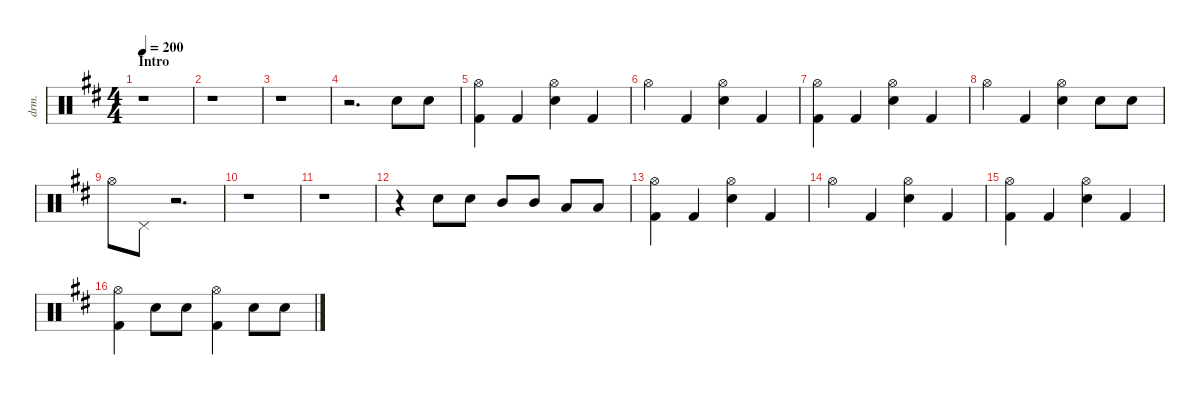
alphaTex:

\defaultSystemsLayout 4
\hideDynamics
\bracketExtendMode nobrackets
\otherSystemsTrackNameOrientation horizontal
\track ("Drums" "drm.") {instrument percussion}
\staff {score}
\articulation defaults
\ts (4 4)
\section ("" "Intro")
\tempo 200
\clef neutral
\ks d
r.1{dy ff beam Down} |
r.1{beam Down} |
r.1{beam Down} |
r.2{d beam Down} "Snare (hit) 2"{acc forcenatural}.8{beam Down} "Snare (hit) 2"{acc forcenatural}.8{beam Down} |
("Kick (hit) 2"{acc forcenatural} "Hi-Hat (open)"{acc #}).4{beam Down} "Kick (hit) 2"{acc forcenatural}.4{beam Up} ("Snare (hit) 2"{acc forcenatural} "Hi-Hat (open)"{acc #}).4{beam Down} "Kick (hit) 2"{acc forcenatural}.4{beam Up} |
"Hi-Hat (open)"{acc #}.4{beam Down} "Kick (hit) 2"{acc forcenatural}.4{beam Up} ("Snare (hit) 2"{acc forcenatural} "Hi-Hat (open)"{acc #}).4{beam Down} "Kick (hit) 2"{acc forcenatural}.4{beam Up} |
("Kick (hit) 2"{acc forcenatural} "Hi-Hat (open)"{acc #}).4{beam Down} "Kick (hit) 2"{acc forcenatural}.4{beam Up} ("Snare (hit) 2"{acc forcenatural} "Hi-Hat (open)"{acc #}).4{beam Down} "Kick (hit) 2"{acc forcenatural}.4{beam Up} |
"Hi-Hat (open)"{acc #}.4{beam Down} "Kick (hit) 2"{acc forcenatural}.4{beam Up} ("Snare (hit) 2"{acc forcenatural} "Hi-Hat (open)"{acc #}).4{beam Down} "Snare (hit) 2"{acc forcenatural}.8{beam Down} "Snare (hit) 2"{acc forcenatural}.8{beam Down} |
"Hi-Hat (open)"{acc #}.8{beam Down} "Pedal Hi-Hat (hit)"{acc #}.8{beam Down} r.2{d beam Down} |
r.1{beam Down} |
r.1{beam Down} |
r.4{beam Down} "Snare (hit) 2"{acc forcenatural}.8{beam Down} "Snare (hit) 2"{acc forcenatural}.8{beam Down} "Mid Tom (hit)"{acc forcenatural}.8{beam Up} "Mid Tom (hit)"{acc forcenatural}.8{beam Up} "Low Tom (hit)"{acc forcenatural}.8{beam Up} "Low Tom (hit)"{acc forcenatural}.8{beam Up} |
("Kick (hit) 2"{acc forcenatural} "Hi-Hat (open)"{acc #}).4{beam Down} "Kick (hit) 2"{acc forcenatural}.4{beam Up} ("Snare (hit) 2"{acc forcenatural} "Hi-Hat (open)"{acc #}).4{beam Down} "Kick (hit) 2"{acc forcenatural}.4{beam Up} |
"Hi-Hat (open)"{acc #}.4{beam Down} "Kick (hit) 2"{acc forcenatural}.4{beam Up} ("Snare (hit) 2"{acc forcenatural} "Hi-Hat (open)"{acc #}).4{beam Down} "Kick (hit) 2"{acc forcenatural}.4{beam Up} |
("Kick (hit) 2"{acc forcenatural} "Hi-Hat (open)"{acc #}).4{beam Down} "Kick (hit) 2"{acc forcenatural}.4{beam Up} ("Snare (hit) 2"{acc forcenatural} "Hi-Hat (open)"{acc #}).4{beam Down} "Kick (hit) 2"{acc forcenatural}.4{beam Up} |
("Kick (hit) 2"{acc forcenatural} "Hi-Hat (open)"{acc #}).4{beam Down} "Snare (hit) 2"{acc forcenatural}.8{beam Down} "Snare (hit) 2"{acc forcenatural}.8{beam Down} ("Kick (hit) 2"{acc forcenatural} "Hi-Hat (open)"{acc #}).4{beam Down} "Snare (hit) 2"{acc forcenatural}.8{beam Down} "Snare (hit) 2"{acc forcenatural}.8{beam Down}
